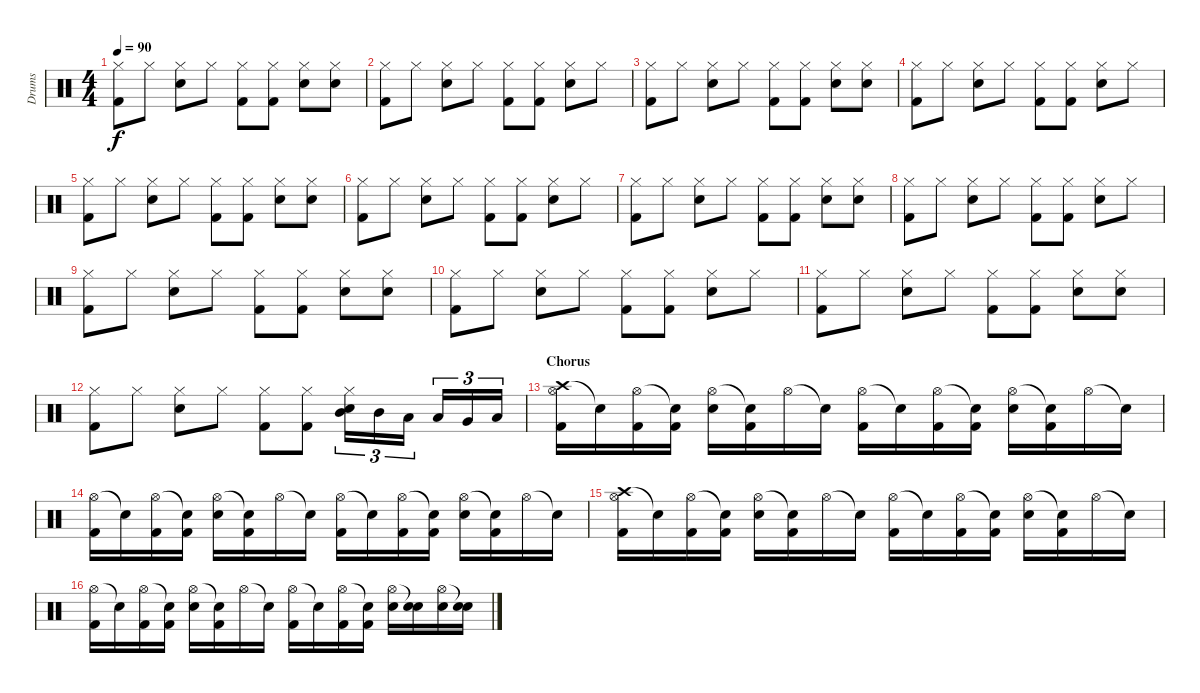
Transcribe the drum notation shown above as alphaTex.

\track ("Drums" "Drums") {instrument percussion}
\staff {score}
\articulation defaults
\ts (4 4)
\tempo 90
\clef neutral
\ks c
("Hi-Hat (closed)" "Kick (hit) 2").8{dy f} "Hi-Hat (closed)".8 ("Hi-Hat (closed)" "Electric Snare (hit)").8 "Hi-Hat (closed)".8 ("Hi-Hat (closed)" "Kick (hit) 2").8 ("Hi-Hat (closed)" "Kick (hit) 2").8 ("Hi-Hat (closed)" "Electric Snare (hit)").8 ("Hi-Hat (closed)" "Electric Snare (hit)").8 |
("Hi-Hat (closed)" "Kick (hit) 2").8 "Hi-Hat (closed)".8 ("Hi-Hat (closed)" "Electric Snare (hit)").8 "Hi-Hat (closed)".8 ("Hi-Hat (closed)" "Kick (hit) 2").8 ("Hi-Hat (closed)" "Kick (hit) 2").8 ("Hi-Hat (closed)" "Electric Snare (hit)").8 "Hi-Hat (closed)".8 |
("Hi-Hat (closed)" "Kick (hit) 2").8 "Hi-Hat (closed)".8 ("Hi-Hat (closed)" "Electric Snare (hit)").8 "Hi-Hat (closed)".8 ("Hi-Hat (closed)" "Kick (hit) 2").8 ("Hi-Hat (closed)" "Kick (hit) 2").8 ("Hi-Hat (closed)" "Electric Snare (hit)").8 ("Hi-Hat (closed)" "Electric Snare (hit)").8 |
("Hi-Hat (closed)" "Kick (hit) 2").8 "Hi-Hat (closed)".8 ("Hi-Hat (closed)" "Electric Snare (hit)").8 "Hi-Hat (closed)".8 ("Hi-Hat (closed)" "Kick (hit) 2").8 ("Hi-Hat (closed)" "Kick (hit) 2").8 ("Hi-Hat (closed)" "Electric Snare (hit)").8 "Hi-Hat (closed)".8 |
("Hi-Hat (closed)" "Kick (hit) 2").8 "Hi-Hat (closed)".8 ("Hi-Hat (closed)" "Electric Snare (hit)").8 "Hi-Hat (closed)".8 ("Hi-Hat (closed)" "Kick (hit) 2").8 ("Hi-Hat (closed)" "Kick (hit) 2").8 ("Hi-Hat (closed)" "Electric Snare (hit)").8 ("Hi-Hat (closed)" "Electric Snare (hit)").8 |
("Hi-Hat (closed)" "Kick (hit) 2").8 "Hi-Hat (closed)".8 ("Hi-Hat (closed)" "Electric Snare (hit)").8 "Hi-Hat (closed)".8 ("Hi-Hat (closed)" "Kick (hit) 2").8 ("Hi-Hat (closed)" "Kick (hit) 2").8 ("Hi-Hat (closed)" "Electric Snare (hit)").8 "Hi-Hat (closed)".8 |
("Hi-Hat (closed)" "Kick (hit) 2").8 "Hi-Hat (closed)".8 ("Hi-Hat (closed)" "Electric Snare (hit)").8 "Hi-Hat (closed)".8 ("Hi-Hat (closed)" "Kick (hit) 2").8 ("Hi-Hat (closed)" "Kick (hit) 2").8 ("Hi-Hat (closed)" "Electric Snare (hit)").8 ("Hi-Hat (closed)" "Electric Snare (hit)").8 |
("Hi-Hat (closed)" "Kick (hit) 2").8 "Hi-Hat (closed)".8 ("Hi-Hat (closed)" "Electric Snare (hit)").8 "Hi-Hat (closed)".8 ("Hi-Hat (closed)" "Kick (hit) 2").8 ("Hi-Hat (closed)" "Kick (hit) 2").8 ("Hi-Hat (closed)" "Electric Snare (hit)").8 "Hi-Hat (closed)".8 |
("Hi-Hat (closed)" "Kick (hit) 2").8 "Hi-Hat (closed)".8 ("Hi-Hat (closed)" "Electric Snare (hit)").8 "Hi-Hat (closed)".8 ("Hi-Hat (closed)" "Kick (hit) 2").8 ("Hi-Hat (closed)" "Kick (hit) 2").8 ("Hi-Hat (closed)" "Electric Snare (hit)").8 ("Hi-Hat (closed)" "Electric Snare (hit)").8 |
("Hi-Hat (closed)" "Kick (hit) 2").8 "Hi-Hat (closed)".8 ("Hi-Hat (closed)" "Electric Snare (hit)").8 "Hi-Hat (closed)".8 ("Hi-Hat (closed)" "Kick (hit) 2").8 ("Hi-Hat (closed)" "Kick (hit) 2").8 ("Hi-Hat (closed)" "Electric Snare (hit)").8 "Hi-Hat (closed)".8 |
("Hi-Hat (closed)" "Kick (hit) 2").8 "Hi-Hat (closed)".8 ("Hi-Hat (closed)" "Electric Snare (hit)").8 "Hi-Hat (closed)".8 ("Hi-Hat (closed)" "Kick (hit) 2").8 ("Hi-Hat (closed)" "Kick (hit) 2").8 ("Hi-Hat (closed)" "Electric Snare (hit)").8 ("Hi-Hat (closed)" "Electric Snare (hit)").8 |
("Hi-Hat (closed)" "Kick (hit) 2").8 "Hi-Hat (closed)".8 ("Hi-Hat (closed)" "Electric Snare (hit)").8 "Hi-Hat (closed)".8 ("Hi-Hat (closed)" "Kick (hit) 2").8 ("Hi-Hat (closed)" "Kick (hit) 2").8 ("Hi-Hat (closed)" "Mid Tom (hit)" "Electric Snare (hit)").16{tu (3 2)} "Mid Tom (hit)".16{tu (3 2)} "Low Tom (hit)".16{tu (3 2)} "Low Tom (hit)".16{tu (3 2)} "Very Low Tom (hit)".16{tu (3 2)} "Low Floor Tom (hit)".16{tu (3 2)} |
\section ("" "Chorus")
("Crash high (hit)" "Hi-Hat (open)" "Kick (hit) 2").16 "Snare (hit)"{t}.16 ("Hi-Hat (open)" "Kick (hit) 2").16 ("Snare (hit)"{t} "Kick (hit) 2").16 ("Hi-Hat (open)" "Electric Snare (hit)").16 ("Snare (hit)"{t} "Kick (hit) 2").16 "Hi-Hat (open)".16 "Snare (hit)"{t}.16 ("Hi-Hat (open)" "Kick (hit) 2").16 "Snare (hit)"{t}.16 ("Hi-Hat (open)" "Kick (hit) 2").16 ("Snare (hit)"{t} "Kick (hit) 2").16 ("Hi-Hat (open)" "Electric Snare (hit)").16 ("Snare (hit)"{t} "Kick (hit) 2").16 "Hi-Hat (open)".16 "Snare (hit)"{t}.16 |
("Hi-Hat (open)" "Kick (hit) 2").16 "Snare (hit)"{t}.16 ("Hi-Hat (open)" "Kick (hit) 2").16 ("Snare (hit)"{t} "Kick (hit) 2").16 ("Hi-Hat (open)" "Electric Snare (hit)").16 ("Snare (hit)"{t} "Kick (hit) 2").16 "Hi-Hat (open)".16 "Snare (hit)"{t}.16 ("Hi-Hat (open)" "Kick (hit) 2").16 "Snare (hit)"{t}.16 ("Hi-Hat (open)" "Kick (hit) 2").16 ("Snare (hit)"{t} "Kick (hit) 2").16 ("Hi-Hat (open)" "Electric Snare (hit)").16 ("Snare (hit)"{t} "Kick (hit) 2").16 "Hi-Hat (open)".16 "Snare (hit)"{t}.16 |
("Crash high (hit)" "Hi-Hat (open)" "Kick (hit) 2").16 "Snare (hit)"{t}.16 ("Hi-Hat (open)" "Kick (hit) 2").16 ("Snare (hit)"{t} "Kick (hit) 2").16 ("Hi-Hat (open)" "Electric Snare (hit)").16 ("Snare (hit)"{t} "Kick (hit) 2").16 "Hi-Hat (open)".16 "Snare (hit)"{t}.16 ("Hi-Hat (open)" "Kick (hit) 2").16 "Snare (hit)"{t}.16 ("Hi-Hat (open)" "Kick (hit) 2").16 ("Snare (hit)"{t} "Kick (hit) 2").16 ("Hi-Hat (open)" "Electric Snare (hit)").16 ("Snare (hit)"{t} "Kick (hit) 2").16 "Hi-Hat (open)".16 "Snare (hit)"{t}.16 |
("Hi-Hat (open)" "Kick (hit) 2").16 "Snare (hit)"{t}.16 ("Hi-Hat (open)" "Kick (hit) 2").16 ("Snare (hit)"{t} "Kick (hit) 2").16 ("Hi-Hat (open)" "Electric Snare (hit)").16 ("Snare (hit)"{t} "Kick (hit) 2").16 "Hi-Hat (open)".16 "Snare (hit)"{t}.16 ("Hi-Hat (open)" "Kick (hit) 2").16 "Snare (hit)"{t}.16 ("Hi-Hat (open)" "Kick (hit) 2").16 ("Snare (hit)"{t} "Kick (hit) 2").16 ("Hi-Hat (open)" "Electric Snare (hit)").16 ("Snare (hit)"{t} "Electric Snare (hit)").16 ("Hi-Hat (open)" "Electric Snare (hit)").16 ("Snare (hit)"{t} "Electric Snare (hit)").16
